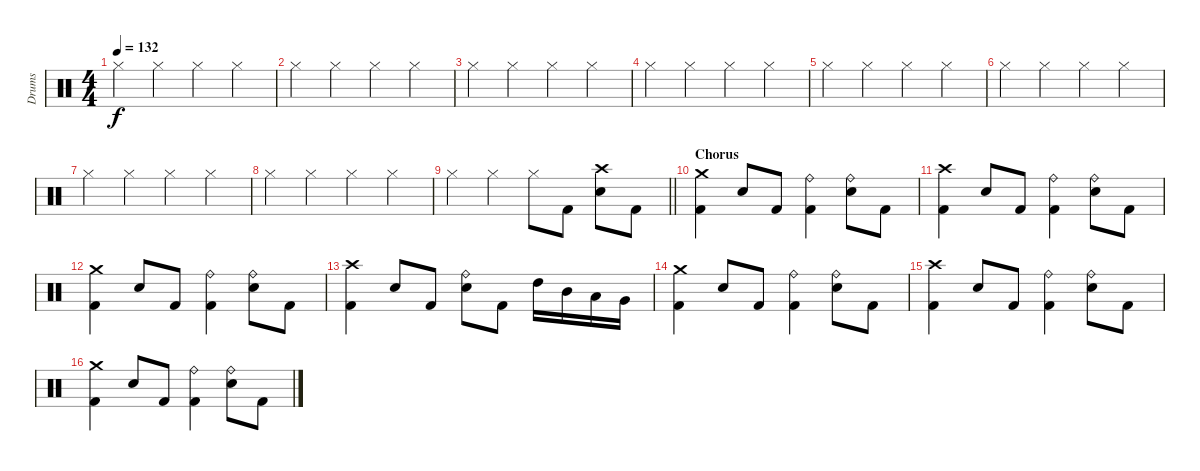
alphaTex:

\track ("Drums" "Drums") {instrument percussion}
\staff {score}
\articulation defaults
\ts (4 4)
\tempo 132
\clef neutral
\ks c "Hi-Hat (closed)".4{dy f} "Hi-Hat (closed)".4 "Hi-Hat (closed)".4 "Hi-Hat (closed)".4
|
"Hi-Hat (closed)".4 "Hi-Hat (closed)".4 "Hi-Hat (closed)".4 "Hi-Hat (closed)".4 |
"Hi-Hat (closed)".4 "Hi-Hat (closed)".4 "Hi-Hat (closed)".4 "Hi-Hat (closed)".4 |
"Hi-Hat (closed)".4 "Hi-Hat (closed)".4 "Hi-Hat (closed)".4 "Hi-Hat (closed)".4 |
"Hi-Hat (closed)".4 "Hi-Hat (closed)".4 "Hi-Hat (closed)".4 "Hi-Hat (closed)".4 |
"Hi-Hat (closed)".4 "Hi-Hat (closed)".4 "Hi-Hat (closed)".4 "Hi-Hat (closed)".4 |
"Hi-Hat (closed)".4 "Hi-Hat (closed)".4 "Hi-Hat (closed)".4 "Hi-Hat (closed)".4 |
"Hi-Hat (closed)".4 "Hi-Hat (closed)".4 "Hi-Hat (closed)".4 "Hi-Hat (closed)".4 |
\barLineRight lightlight "Hi-Hat (closed)".4 "Hi-Hat (closed)".4 "Hi-Hat (closed)".8 "Kick (hit) 2".8
("Electric Snare (hit)" "Crash high (hit)").8 "Kick (hit) 2".8 |
\section ("" "Chorus")
("Kick (hit) 2" "Crash medium (hit)").4 "Electric Snare (hit)".8 "Kick (hit) 2".8 ("Kick (hit) 2" "Ride (bell)").4 ("Electric Snare (hit)" "Ride (bell)").8 "Kick (hit) 2".8 |
("Kick (hit) 2" "Crash high (hit)").4 "Electric Snare (hit)".8 "Kick (hit) 2".8 ("Kick (hit) 2" "Ride (bell)").4 ("Electric Snare (hit)" "Ride (bell)").8 "Kick (hit) 2".8 |
("Kick (hit) 2" "Crash medium (hit)").4 "Electric Snare (hit)".8 "Kick (hit) 2".8 ("Kick (hit) 2" "Ride (bell)").4 ("Electric Snare (hit)" "Ride (bell)").8 "Kick (hit) 2".8 |
("Kick (hit) 2" "Crash high (hit)").4 "Electric Snare (hit)".8 "Kick (hit) 2".8 ("Electric Snare (hit)" "Ride (bell)").8 "Kick (hit) 2".8 "High Tom (hit)".16 "Mid Tom (hit)".16 "Low Tom (hit)".16 "Very Low Tom (hit)".16 |
("Kick (hit) 2" "Crash medium (hit)").4 "Electric Snare (hit)".8 "Kick (hit) 2".8 ("Kick (hit) 2" "Ride (bell)").4 ("Electric Snare (hit)" "Ride (bell)").8 "Kick (hit) 2".8 |
("Kick (hit) 2" "Crash high (hit)").4 "Electric Snare (hit)".8 "Kick (hit) 2".8 ("Kick (hit) 2" "Ride (bell)").4 ("Electric Snare (hit)" "Ride (bell)").8 "Kick (hit) 2".8 |
("Kick (hit) 2" "Crash medium (hit)").4 "Electric Snare (hit)".8 "Kick (hit) 2".8 ("Kick (hit) 2" "Ride (bell)").4 ("Electric Snare (hit)" "Ride (bell)").8 "Kick (hit) 2".8
